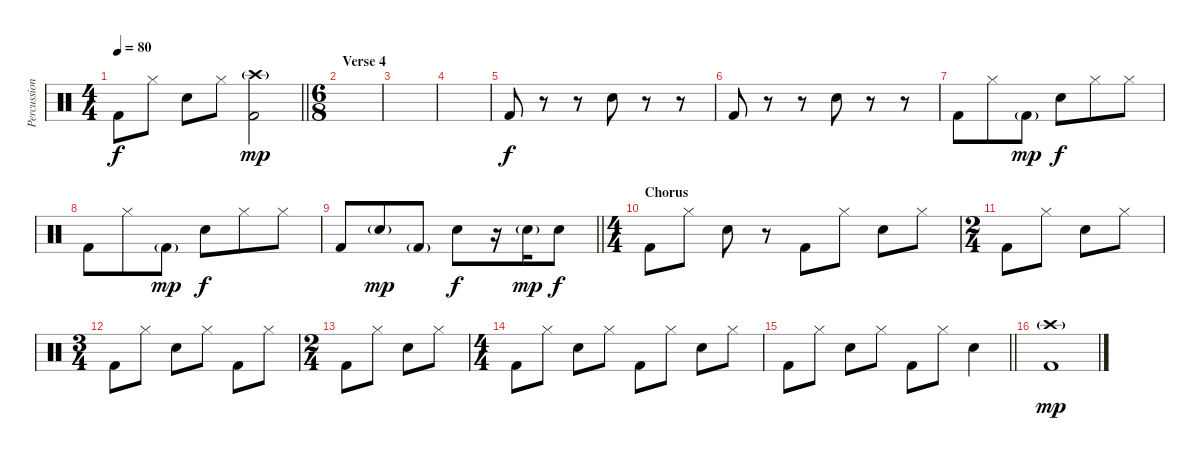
\track ("Percussion" "Percussion") {instrument percussion}
\staff {score}
\articulation defaults
\ts (4 4)
\tempo 80
\clef neutral
\barLineRight lightlight
\ks c "Kick (hit) 2".8{dy f} "Hi-Hat (closed)".8 "Snare (hit) 2".8 "Hi-Hat (closed)".8
("Crash high (hit)"{g} "Kick (hit) 2").2{dy mp} |
\ts (6 8)
\section ("" "Verse 4")
|
|
|
"Kick (hit) 2".8{dy f} r.8 r.8 "Snare (hit) 2".8 r.8 r.8 |
"Kick (hit) 2".8 r.8 r.8 "Snare (hit) 2".8 r.8 r.8 |
"Kick (hit) 2".8 "Hi-Hat (closed)".8 "Kick (hit) 2"{g}.8{dy mp} "Snare (hit) 2".8{dy f} "Hi-Hat (closed)".8 "Hi-Hat (closed)".8 |
"Kick (hit) 2".8 "Hi-Hat (closed)".8 "Kick (hit) 2"{g}.8{dy mp} "Snare (hit) 2".8{dy f} "Hi-Hat (closed)".8 "Hi-Hat (closed)".8 |
\barLineRight lightlight "Kick (hit) 2".8 "Snare (hit) 2"{g}.8{dy mp} "Kick (hit) 2"{g}.8 "Snare (hit) 2".8{dy f}
r.16 "Snare (hit) 2"{g}.16{dy mp} "Snare (hit) 2".8{dy f} |
\ts (4 4)
\section ("" "Chorus")
"Kick (hit) 2".8 "Hi-Hat (closed)".8 "Snare (hit) 2".8 r.8 "Kick (hit) 2".8 "Hi-Hat (closed)".8 "Snare (hit) 2".8 "Hi-Hat (closed)".8 |
\ts (2 4)
"Kick (hit) 2".8 "Hi-Hat (closed)".8 "Snare (hit) 2".8 "Hi-Hat (closed)".8 |
\ts (3 4)
"Kick (hit) 2".8 "Hi-Hat (closed)".8 "Snare (hit) 2".8 "Hi-Hat (closed)".8 "Kick (hit) 2".8 "Hi-Hat (closed)".8 |
\ts (2 4)
"Kick (hit) 2".8 "Hi-Hat (closed)".8 "Snare (hit) 2".8 "Hi-Hat (closed)".8 |
\ts (4 4)
"Kick (hit) 2".8 "Hi-Hat (closed)".8 "Snare (hit) 2".8 "Hi-Hat (closed)".8 "Kick (hit) 2".8 "Hi-Hat (closed)".8 "Snare (hit) 2".8 "Hi-Hat (closed)".8 |
\barLineRight lightlight "Kick (hit) 2".8 "Hi-Hat (closed)".8 "Snare (hit) 2".8 "Hi-Hat (closed)".8 "Kick (hit) 2".8 "Hi-Hat (closed)".8 "Snare (hit) 2".4
|
("Crash high (hit)"{g} "Kick (hit) 2").1{dy mp}
